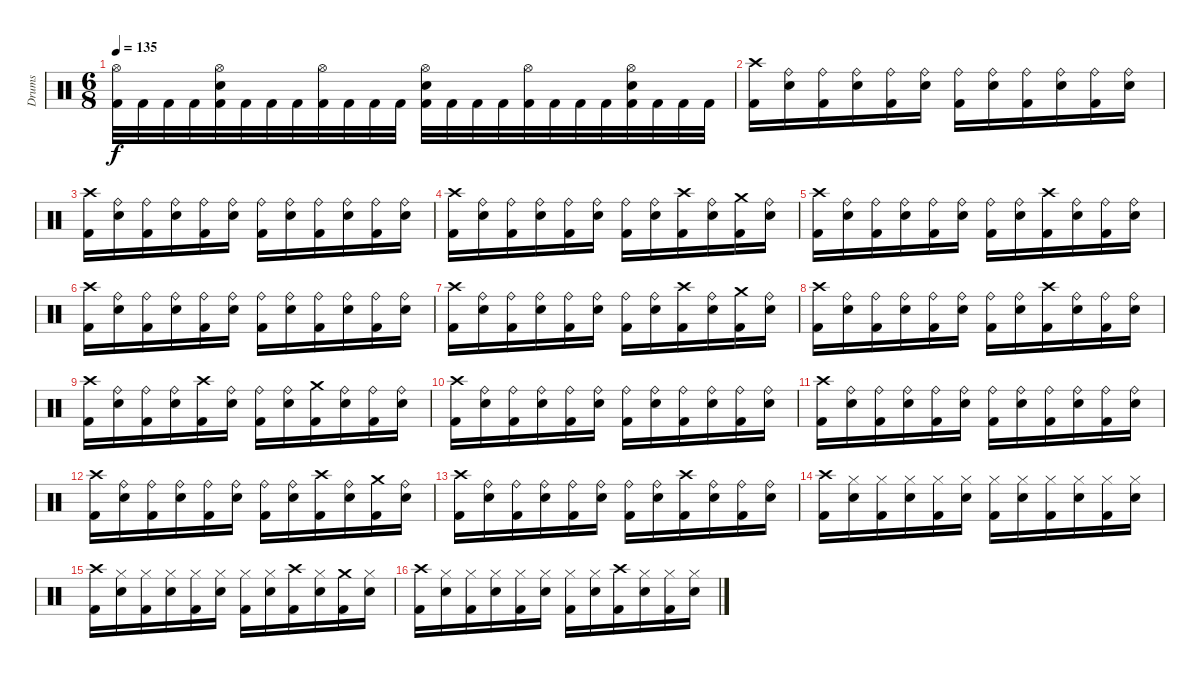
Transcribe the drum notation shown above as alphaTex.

\track ("Drums" "Drums") {instrument percussion}
\staff {score}
\articulation defaults
\ts (6 8)
\tempo 135
\clef neutral
\ks c
("Hi-Hat (open)" "Kick (hit) 2").32{dy f} "Kick (hit) 2".32 "Kick (hit) 2".32 "Kick (hit) 2".32 ("Hi-Hat (open)" "Electric Snare (hit)" "Kick (hit) 2").32 "Kick (hit) 2".32 "Kick (hit) 2".32 "Kick (hit) 2".32 ("Hi-Hat (open)" "Kick (hit) 2").32 "Kick (hit) 2".32 "Kick (hit) 2".32 "Kick (hit) 2".32 ("Hi-Hat (open)" "Electric Snare (hit)" "Kick (hit) 2").32 "Kick (hit) 2".32 "Kick (hit) 2".32 "Kick (hit) 2".32 ("Hi-Hat (open)" "Kick (hit) 2").32 "Kick (hit) 2".32 "Kick (hit) 2".32 "Kick (hit) 2".32 ("Hi-Hat (open)" "Electric Snare (hit)" "Kick (hit) 2").32 "Kick (hit) 2".32 "Kick (hit) 2".32 "Kick (hit) 2".32 |
("Crash high (hit)" "Kick (hit) 2").16 ("Ride (bell)" "Electric Snare (hit)").16 ("Ride (bell)" "Kick (hit) 2").16 ("Ride (bell)" "Electric Snare (hit)").16 ("Ride (bell)" "Kick (hit) 2").16 ("Ride (bell)" "Electric Snare (hit)").16 ("Ride (bell)" "Kick (hit) 2").16 ("Ride (bell)" "Electric Snare (hit)").16 ("Ride (bell)" "Kick (hit) 2").16 ("Ride (bell)" "Electric Snare (hit)").16 ("Ride (bell)" "Kick (hit) 2").16 ("Ride (bell)" "Electric Snare (hit)").16 |
("Crash high (hit)" "Kick (hit) 2").16 ("Ride (bell)" "Electric Snare (hit)").16 ("Ride (bell)" "Kick (hit) 2").16 ("Ride (bell)" "Electric Snare (hit)").16 ("Ride (bell)" "Kick (hit) 2").16 ("Ride (bell)" "Electric Snare (hit)").16 ("Ride (bell)" "Kick (hit) 2").16 ("Ride (bell)" "Electric Snare (hit)").16 ("Ride (bell)" "Kick (hit) 2").16 ("Ride (bell)" "Electric Snare (hit)").16 ("Ride (bell)" "Kick (hit) 2").16 ("Ride (bell)" "Electric Snare (hit)").16 |
("Crash high (hit)" "Kick (hit) 2").16 ("Ride (bell)" "Electric Snare (hit)").16 ("Ride (bell)" "Kick (hit) 2").16 ("Ride (bell)" "Electric Snare (hit)").16 ("Ride (bell)" "Kick (hit) 2").16 ("Ride (bell)" "Electric Snare (hit)").16 ("Ride (bell)" "Kick (hit) 2").16 ("Ride (bell)" "Electric Snare (hit)").16 ("Crash high (hit)" "Kick (hit) 2").16 ("Ride (bell)" "Electric Snare (hit)").16 ("Crash medium (hit)" "Kick (hit) 2").16 ("Ride (bell)" "Electric Snare (hit)").16 |
("Crash high (hit)" "Kick (hit) 2").16 ("Ride (bell)" "Electric Snare (hit)").16 ("Ride (bell)" "Kick (hit) 2").16 ("Ride (bell)" "Electric Snare (hit)").16 ("Ride (bell)" "Kick (hit) 2").16 ("Ride (bell)" "Electric Snare (hit)").16 ("Ride (bell)" "Kick (hit) 2").16 ("Ride (bell)" "Electric Snare (hit)").16 ("Crash high (hit)" "Kick (hit) 2").16 ("Ride (bell)" "Electric Snare (hit)").16 ("Ride (bell)" "Kick (hit) 2").16 ("Ride (bell)" "Electric Snare (hit)").16 |
("Crash high (hit)" "Kick (hit) 2").16 ("Ride (bell)" "Electric Snare (hit)").16 ("Ride (bell)" "Kick (hit) 2").16 ("Ride (bell)" "Electric Snare (hit)").16 ("Ride (bell)" "Kick (hit) 2").16 ("Ride (bell)" "Electric Snare (hit)").16 ("Ride (bell)" "Kick (hit) 2").16 ("Ride (bell)" "Electric Snare (hit)").16 ("Ride (bell)" "Kick (hit) 2").16 ("Ride (bell)" "Electric Snare (hit)").16 ("Ride (bell)" "Kick (hit) 2").16 ("Ride (bell)" "Electric Snare (hit)").16 |
("Crash high (hit)" "Kick (hit) 2").16 ("Ride (bell)" "Electric Snare (hit)").16 ("Ride (bell)" "Kick (hit) 2").16 ("Ride (bell)" "Electric Snare (hit)").16 ("Ride (bell)" "Kick (hit) 2").16 ("Ride (bell)" "Electric Snare (hit)").16 ("Ride (bell)" "Kick (hit) 2").16 ("Ride (bell)" "Electric Snare (hit)").16 ("Crash high (hit)" "Kick (hit) 2").16 ("Ride (bell)" "Electric Snare (hit)").16 ("Crash medium (hit)" "Kick (hit) 2").16 ("Ride (bell)" "Electric Snare (hit)").16 |
("Crash high (hit)" "Kick (hit) 2").16 ("Ride (bell)" "Electric Snare (hit)").16 ("Ride (bell)" "Kick (hit) 2").16 ("Ride (bell)" "Electric Snare (hit)").16 ("Ride (bell)" "Kick (hit) 2").16 ("Ride (bell)" "Electric Snare (hit)").16 ("Ride (bell)" "Kick (hit) 2").16 ("Ride (bell)" "Electric Snare (hit)").16 ("Crash high (hit)" "Kick (hit) 2").16 ("Ride (bell)" "Electric Snare (hit)").16 ("Ride (bell)" "Kick (hit) 2").16 ("Ride (bell)" "Electric Snare (hit)").16 |
("Crash high (hit)" "Kick (hit) 2").16 ("Ride (bell)" "Electric Snare (hit)").16 ("Ride (bell)" "Kick (hit) 2").16 ("Ride (bell)" "Electric Snare (hit)").16 ("Crash high (hit)" "Kick (hit) 2").16 ("Ride (bell)" "Electric Snare (hit)").16 ("Ride (bell)" "Kick (hit) 2").16 ("Ride (bell)" "Electric Snare (hit)").16 ("Crash medium (hit)" "Kick (hit) 2").16 ("Ride (bell)" "Electric Snare (hit)").16 ("Ride (bell)" "Kick (hit) 2").16 ("Ride (bell)" "Electric Snare (hit)").16 |
("Crash high (hit)" "Kick (hit) 2").16 ("Ride (bell)" "Electric Snare (hit)").16 ("Ride (bell)" "Kick (hit) 2").16 ("Ride (bell)" "Electric Snare (hit)").16 ("Ride (bell)" "Kick (hit) 2").16 ("Ride (bell)" "Electric Snare (hit)").16 ("Ride (bell)" "Kick (hit) 2").16 ("Ride (bell)" "Electric Snare (hit)").16 ("Ride (bell)" "Kick (hit) 2").16 ("Ride (bell)" "Electric Snare (hit)").16 ("Ride (bell)" "Kick (hit) 2").16 ("Ride (bell)" "Electric Snare (hit)").16 |
("Crash high (hit)" "Kick (hit) 2").16 ("Ride (bell)" "Electric Snare (hit)").16 ("Ride (bell)" "Kick (hit) 2").16 ("Ride (bell)" "Electric Snare (hit)").16 ("Ride (bell)" "Kick (hit) 2").16 ("Ride (bell)" "Electric Snare (hit)").16 ("Ride (bell)" "Kick (hit) 2").16 ("Ride (bell)" "Electric Snare (hit)").16 ("Ride (bell)" "Kick (hit) 2").16 ("Ride (bell)" "Electric Snare (hit)").16 ("Ride (bell)" "Kick (hit) 2").16 ("Ride (bell)" "Electric Snare (hit)").16 |
("Crash high (hit)" "Kick (hit) 2").16 ("Ride (bell)" "Electric Snare (hit)").16 ("Ride (bell)" "Kick (hit) 2").16 ("Ride (bell)" "Electric Snare (hit)").16 ("Ride (bell)" "Kick (hit) 2").16 ("Ride (bell)" "Electric Snare (hit)").16 ("Ride (bell)" "Kick (hit) 2").16 ("Ride (bell)" "Electric Snare (hit)").16 ("Crash high (hit)" "Kick (hit) 2").16 ("Ride (bell)" "Electric Snare (hit)").16 ("Crash medium (hit)" "Kick (hit) 2").16 ("Ride (bell)" "Electric Snare (hit)").16 |
("Crash high (hit)" "Kick (hit) 2").16 ("Ride (bell)" "Electric Snare (hit)").16 ("Ride (bell)" "Kick (hit) 2").16 ("Ride (bell)" "Electric Snare (hit)").16 ("Ride (bell)" "Kick (hit) 2").16 ("Ride (bell)" "Electric Snare (hit)").16 ("Ride (bell)" "Kick (hit) 2").16 ("Ride (bell)" "Electric Snare (hit)").16 ("Crash high (hit)" "Kick (hit) 2").16 ("Ride (bell)" "Electric Snare (hit)").16 ("Ride (bell)" "Kick (hit) 2").16 ("Ride (bell)" "Electric Snare (hit)").16 |
("Crash high (hit)" "Kick (hit) 2").16 ("Hi-Hat (closed)" "Electric Snare (hit)").16 ("Hi-Hat (closed)" "Kick (hit) 2").16 ("Hi-Hat (closed)" "Electric Snare (hit)").16 ("Hi-Hat (closed)" "Kick (hit) 2").16 ("Hi-Hat (closed)" "Electric Snare (hit)").16 ("Hi-Hat (closed)" "Kick (hit) 2").16 ("Hi-Hat (closed)" "Electric Snare (hit)").16 ("Hi-Hat (closed)" "Kick (hit) 2").16 ("Hi-Hat (closed)" "Electric Snare (hit)").16 ("Hi-Hat (closed)" "Kick (hit) 2").16 ("Hi-Hat (closed)" "Electric Snare (hit)").16 |
("Crash high (hit)" "Kick (hit) 2").16 ("Hi-Hat (closed)" "Electric Snare (hit)").16 ("Hi-Hat (closed)" "Kick (hit) 2").16 ("Hi-Hat (closed)" "Electric Snare (hit)").16 ("Hi-Hat (closed)" "Kick (hit) 2").16 ("Hi-Hat (closed)" "Electric Snare (hit)").16 ("Hi-Hat (closed)" "Kick (hit) 2").16 ("Hi-Hat (closed)" "Electric Snare (hit)").16 ("Crash high (hit)" "Kick (hit) 2").16 ("Hi-Hat (closed)" "Electric Snare (hit)").16 ("Crash medium (hit)" "Kick (hit) 2").16 ("Hi-Hat (closed)" "Electric Snare (hit)").16 |
("Crash high (hit)" "Kick (hit) 2").16 ("Hi-Hat (closed)" "Electric Snare (hit)").16 ("Hi-Hat (closed)" "Kick (hit) 2").16 ("Hi-Hat (closed)" "Electric Snare (hit)").16 ("Hi-Hat (closed)" "Kick (hit) 2").16 ("Hi-Hat (closed)" "Electric Snare (hit)").16 ("Hi-Hat (closed)" "Kick (hit) 2").16 ("Hi-Hat (closed)" "Electric Snare (hit)").16 ("Crash high (hit)" "Kick (hit) 2").16 ("Hi-Hat (closed)" "Electric Snare (hit)").16 ("Hi-Hat (closed)" "Kick (hit) 2").16 ("Hi-Hat (closed)" "Electric Snare (hit)").16
